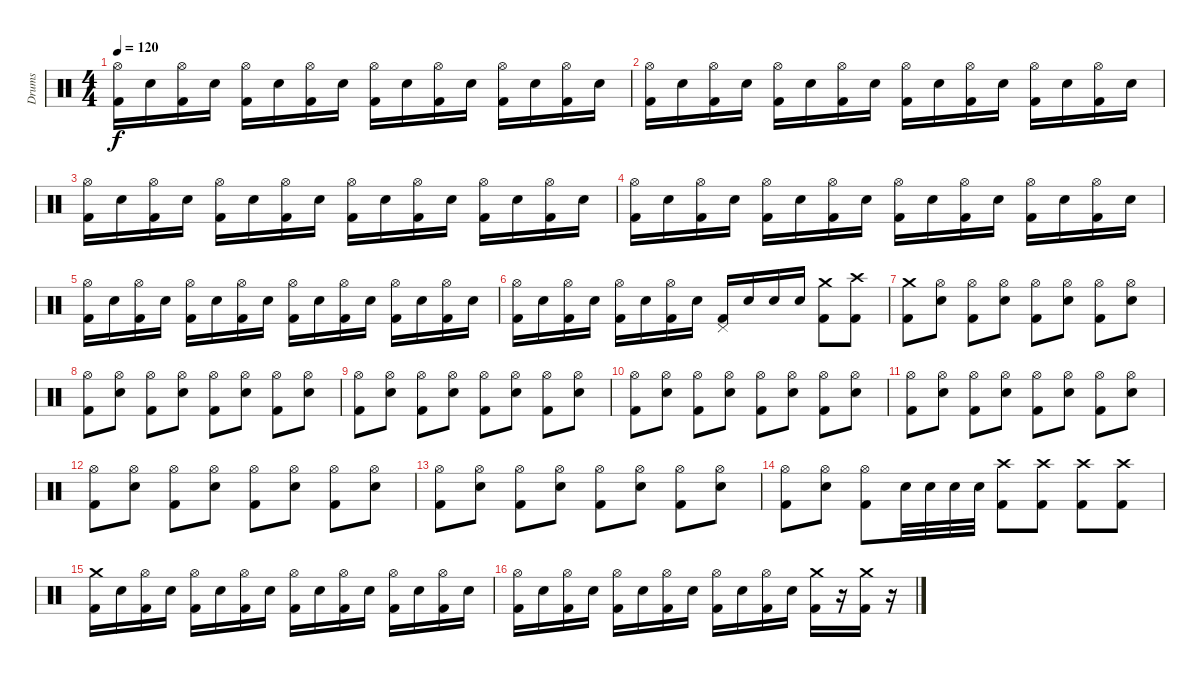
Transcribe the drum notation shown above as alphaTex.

\track ("Drums" "Drums") {instrument percussion}
\staff {score}
\articulation defaults
\ts (4 4)
\tempo 120
\clef neutral
\ks c
("Hi-Hat (open)" "Kick (hit) 2").16{dy f} "Snare (hit) 2".16 ("Hi-Hat (open)" "Kick (hit) 2").16 "Snare (hit) 2".16 ("Hi-Hat (open)" "Kick (hit) 2").16 "Snare (hit) 2".16 ("Hi-Hat (open)" "Kick (hit) 2").16 "Snare (hit) 2".16 ("Hi-Hat (open)" "Kick (hit) 2").16 "Snare (hit) 2".16 ("Hi-Hat (open)" "Kick (hit) 2").16 "Snare (hit) 2".16 ("Hi-Hat (open)" "Kick (hit) 2").16 "Snare (hit) 2".16 ("Hi-Hat (open)" "Kick (hit) 2").16 "Snare (hit) 2".16 |
("Hi-Hat (open)" "Kick (hit) 2").16 "Snare (hit) 2".16 ("Hi-Hat (open)" "Kick (hit) 2").16 "Snare (hit) 2".16 ("Hi-Hat (open)" "Kick (hit) 2").16 "Snare (hit) 2".16 ("Hi-Hat (open)" "Kick (hit) 2").16 "Snare (hit) 2".16 ("Hi-Hat (open)" "Kick (hit) 2").16 "Snare (hit) 2".16 ("Hi-Hat (open)" "Kick (hit) 2").16 "Snare (hit) 2".16 ("Hi-Hat (open)" "Kick (hit) 2").16 "Snare (hit) 2".16 ("Hi-Hat (open)" "Kick (hit) 2").16 "Snare (hit) 2".16 |
("Hi-Hat (open)" "Kick (hit) 2").16 "Snare (hit) 2".16 ("Hi-Hat (open)" "Kick (hit) 2").16 "Snare (hit) 2".16 ("Hi-Hat (open)" "Kick (hit) 2").16 "Snare (hit) 2".16 ("Hi-Hat (open)" "Kick (hit) 2").16 "Snare (hit) 2".16 ("Hi-Hat (open)" "Kick (hit) 2").16 "Snare (hit) 2".16 ("Hi-Hat (open)" "Kick (hit) 2").16 "Snare (hit) 2".16 ("Hi-Hat (open)" "Kick (hit) 2").16 "Snare (hit) 2".16 ("Hi-Hat (open)" "Kick (hit) 2").16 "Snare (hit) 2".16 |
("Hi-Hat (open)" "Kick (hit) 2").16 "Snare (hit) 2".16 ("Hi-Hat (open)" "Kick (hit) 2").16 "Snare (hit) 2".16 ("Hi-Hat (open)" "Kick (hit) 2").16 "Snare (hit) 2".16 ("Hi-Hat (open)" "Kick (hit) 2").16 "Snare (hit) 2".16 ("Hi-Hat (open)" "Kick (hit) 2").16 "Snare (hit) 2".16 ("Hi-Hat (open)" "Kick (hit) 2").16 "Snare (hit) 2".16 ("Hi-Hat (open)" "Kick (hit) 2").16 "Snare (hit) 2".16 ("Hi-Hat (open)" "Kick (hit) 2").16 "Snare (hit) 2".16 |
("Hi-Hat (open)" "Kick (hit) 2").16 "Snare (hit) 2".16 ("Hi-Hat (open)" "Kick (hit) 2").16 "Snare (hit) 2".16 ("Hi-Hat (open)" "Kick (hit) 2").16 "Snare (hit) 2".16 ("Hi-Hat (open)" "Kick (hit) 2").16 "Snare (hit) 2".16 ("Hi-Hat (open)" "Kick (hit) 2").16 "Snare (hit) 2".16 ("Hi-Hat (open)" "Kick (hit) 2").16 "Snare (hit) 2".16 ("Hi-Hat (open)" "Kick (hit) 2").16 "Snare (hit) 2".16 ("Hi-Hat (open)" "Kick (hit) 2").16 "Snare (hit) 2".16 |
("Hi-Hat (open)" "Kick (hit) 2").16 "Snare (hit) 2".16 ("Hi-Hat (open)" "Kick (hit) 2").16 "Snare (hit) 2".16 ("Hi-Hat (open)" "Kick (hit) 2").16 "Snare (hit) 2".16 ("Hi-Hat (open)" "Kick (hit) 2").16 "Snare (hit) 2".16 ("Pedal Hi-Hat (hit)" "Kick (hit) 2").16 "Snare (hit) 2".16 "Snare (hit) 2".16 "Snare (hit) 2".16 ("Crash medium (hit)" "Kick (hit) 2").8 ("Crash high (hit)" "Kick (hit) 2").8 |
("Crash medium (hit)" "Kick (hit) 2").8 ("Hi-Hat (open)" "Snare (hit) 2").8 ("Hi-Hat (open)" "Kick (hit) 2").8 ("Hi-Hat (open)" "Snare (hit) 2").8 ("Hi-Hat (open)" "Kick (hit) 2").8 ("Hi-Hat (open)" "Snare (hit) 2").8 ("Hi-Hat (open)" "Kick (hit) 2").8 ("Hi-Hat (open)" "Snare (hit) 2").8 |
("Hi-Hat (open)" "Kick (hit) 2").8 ("Hi-Hat (open)" "Snare (hit) 2").8 ("Hi-Hat (open)" "Kick (hit) 2").8 ("Hi-Hat (open)" "Snare (hit) 2").8 ("Hi-Hat (open)" "Kick (hit) 2").8 ("Hi-Hat (open)" "Snare (hit) 2").8 ("Hi-Hat (open)" "Kick (hit) 2").8 ("Hi-Hat (open)" "Snare (hit) 2").8 |
("Hi-Hat (open)" "Kick (hit) 2").8 ("Hi-Hat (open)" "Snare (hit) 2").8 ("Hi-Hat (open)" "Kick (hit) 2").8 ("Hi-Hat (open)" "Snare (hit) 2").8 ("Hi-Hat (open)" "Kick (hit) 2").8 ("Hi-Hat (open)" "Snare (hit) 2").8 ("Hi-Hat (open)" "Kick (hit) 2").8 ("Hi-Hat (open)" "Snare (hit) 2").8 |
("Hi-Hat (open)" "Kick (hit) 2").8 ("Hi-Hat (open)" "Snare (hit) 2").8 ("Hi-Hat (open)" "Kick (hit) 2").8 ("Hi-Hat (open)" "Snare (hit) 2").8 ("Hi-Hat (open)" "Kick (hit) 2").8 ("Hi-Hat (open)" "Snare (hit) 2").8 ("Hi-Hat (open)" "Kick (hit) 2").8 ("Hi-Hat (open)" "Snare (hit) 2").8 |
("Hi-Hat (open)" "Kick (hit) 2").8 ("Hi-Hat (open)" "Snare (hit) 2").8 ("Hi-Hat (open)" "Kick (hit) 2").8 ("Hi-Hat (open)" "Snare (hit) 2").8 ("Hi-Hat (open)" "Kick (hit) 2").8 ("Hi-Hat (open)" "Snare (hit) 2").8 ("Hi-Hat (open)" "Kick (hit) 2").8 ("Hi-Hat (open)" "Snare (hit) 2").8 |
("Hi-Hat (open)" "Kick (hit) 2").8 ("Hi-Hat (open)" "Snare (hit) 2").8 ("Hi-Hat (open)" "Kick (hit) 2").8 ("Hi-Hat (open)" "Snare (hit) 2").8 ("Hi-Hat (open)" "Kick (hit) 2").8 ("Hi-Hat (open)" "Snare (hit) 2").8 ("Hi-Hat (open)" "Kick (hit) 2").8 ("Hi-Hat (open)" "Snare (hit) 2").8 |
("Hi-Hat (open)" "Kick (hit) 2").8 ("Hi-Hat (open)" "Snare (hit) 2").8 ("Hi-Hat (open)" "Kick (hit) 2").8 ("Hi-Hat (open)" "Snare (hit) 2").8 ("Hi-Hat (open)" "Kick (hit) 2").8 ("Hi-Hat (open)" "Snare (hit) 2").8 ("Hi-Hat (open)" "Kick (hit) 2").8 ("Hi-Hat (open)" "Snare (hit) 2").8 |
("Hi-Hat (open)" "Kick (hit) 2").8 ("Hi-Hat (open)" "Snare (hit) 2").8 ("Hi-Hat (open)" "Kick (hit) 2").8 "Snare (hit) 2".32 "Snare (hit) 2".32 "Snare (hit) 2".32 "Snare (hit) 2".32 ("Crash high (hit)" "Kick (hit) 2").8 ("Crash high (hit)" "Kick (hit) 2").8 ("Crash high (hit)" "Kick (hit) 2").8 ("Crash high (hit)" "Kick (hit) 2").8 |
("Crash medium (hit)" "Kick (hit) 2").16 "Snare (hit) 2".16 ("Hi-Hat (open)" "Kick (hit) 2").16 "Snare (hit) 2".16 ("Hi-Hat (open)" "Kick (hit) 2").16 "Snare (hit) 2".16 ("Hi-Hat (open)" "Kick (hit) 2").16 "Snare (hit) 2".16 ("Hi-Hat (open)" "Kick (hit) 2").16 "Snare (hit) 2".16 ("Hi-Hat (open)" "Kick (hit) 2").16 "Snare (hit) 2".16 ("Hi-Hat (open)" "Kick (hit) 2").16 "Snare (hit) 2".16 ("Hi-Hat (open)" "Kick (hit) 2").16 "Snare (hit) 2".16 |
("Hi-Hat (open)" "Kick (hit) 2").16 "Snare (hit) 2".16 ("Hi-Hat (open)" "Kick (hit) 2").16 "Snare (hit) 2".16 ("Hi-Hat (open)" "Kick (hit) 2").16 "Snare (hit) 2".16 ("Hi-Hat (open)" "Kick (hit) 2").16 "Snare (hit) 2".16 ("Hi-Hat (open)" "Kick (hit) 2").16 "Snare (hit) 2".16 ("Hi-Hat (open)" "Kick (hit) 2").16 "Snare (hit) 2".16 ("Crash medium (hit)" "Kick (hit) 2").16 r.16 ("Crash medium (hit)" "Kick (hit) 2").16 r.16
